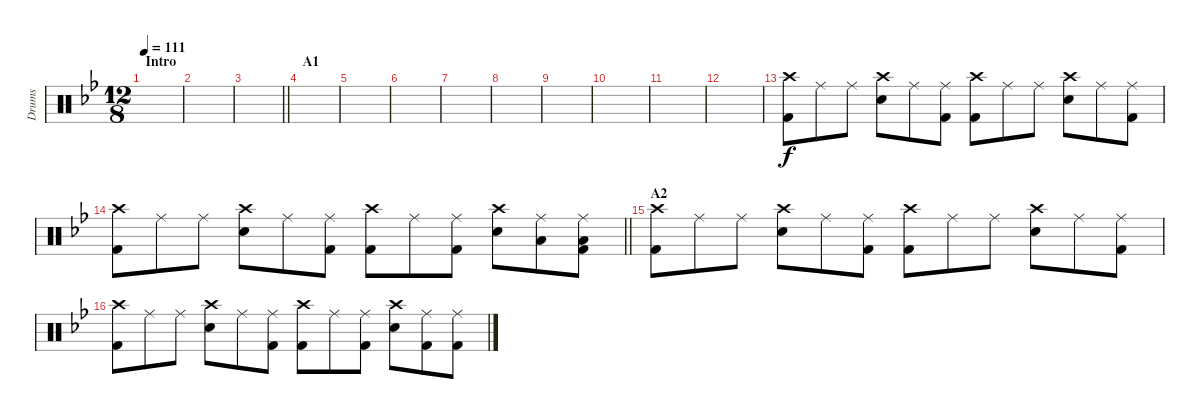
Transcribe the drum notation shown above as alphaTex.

\track ("Drums" "Drums") {instrument percussion}
\staff {score}
\articulation defaults
\ts (12 8)
\section ("" "Intro")
\tempo 111
\clef neutral
\ks gminor
|
|
\barLineRight lightlight
|
\section ("" "A1")
|
|
|
|
|
|
|
|
|
("Crash high (hit)" "Kick (hit) 2").8 "Ride (middle)".8 "Ride (middle)".8 ("Crash high (hit)" "Electric Snare (hit)").8 "Ride (middle)".8 ("Ride (middle)" "Kick (hit) 2").8 ("Crash high (hit)" "Kick (hit) 2").8 "Ride (middle)".8 "Ride (middle)".8 ("Crash high (hit)" "Electric Snare (hit)").8 "Ride (middle)".8 ("Ride (middle)" "Kick (hit) 2").8 |
\barLineRight lightlight
("Crash high (hit)" "Kick (hit) 2").8 "Ride (middle)".8 "Ride (middle)".8 ("Crash high (hit)" "Electric Snare (hit)").8 "Ride (middle)".8 ("Ride (middle)" "Kick (hit) 2").8 ("Crash high (hit)" "Kick (hit) 2").8 "Ride (middle)".8 ("Ride (middle)" "Kick (hit) 2").8 ("Crash high (hit)" "Electric Snare (hit)").8 ("Ride (middle)" "Low Floor Tom (hit)").8 ("Ride (middle)" "Low Floor Tom (hit)" "Kick (hit) 2").8 |
\section ("" "A2")
("Crash high (hit)" "Kick (hit) 2").8 "Ride (middle)".8 "Ride (middle)".8 ("Crash high (hit)" "Electric Snare (hit)").8 "Ride (middle)".8 ("Ride (middle)" "Kick (hit) 2").8 ("Crash high (hit)" "Kick (hit) 2").8 "Ride (middle)".8 "Ride (middle)".8 ("Crash high (hit)" "Electric Snare (hit)").8 "Ride (middle)".8 ("Ride (middle)" "Kick (hit) 2").8 |
("Crash high (hit)" "Kick (hit) 2").8 "Ride (middle)".8 "Ride (middle)".8 ("Crash high (hit)" "Electric Snare (hit)").8 "Ride (middle)".8 ("Ride (middle)" "Kick (hit) 2").8 ("Crash high (hit)" "Kick (hit) 2").8 "Ride (middle)".8 ("Ride (middle)" "Kick (hit) 2").8 ("Crash high (hit)" "Electric Snare (hit)").8 ("Ride (middle)" "Kick (hit) 2").8 ("Ride (middle)" "Kick (hit) 2").8
